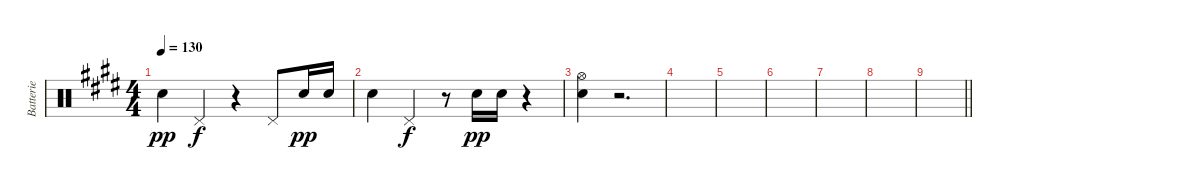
\track ("Batterie" "Batterie") {instrument percussion}
\staff {score}
\articulation defaults
\ts (4 4)
\tempo 130
\clef neutral
\ks e "Snare (hit) 2".4{dy pp} "Pedal Hi-Hat (hit)".4{dy f}
r.4 "Pedal Hi-Hat (hit)".8 "Snare (hit) 2".16{dy pp} "Snare (hit) 2".16 |
"Snare (hit) 2".4 "Pedal Hi-Hat (hit)".4{dy f} r.8 "Snare (hit) 2".16{dy pp} "Snare (hit) 2".16 r.4 |
("Hi-Hat (open)" "Snare (hit) 2").4 r.2{d} |
|
|
|
|
|
\barLineRight lightlight
